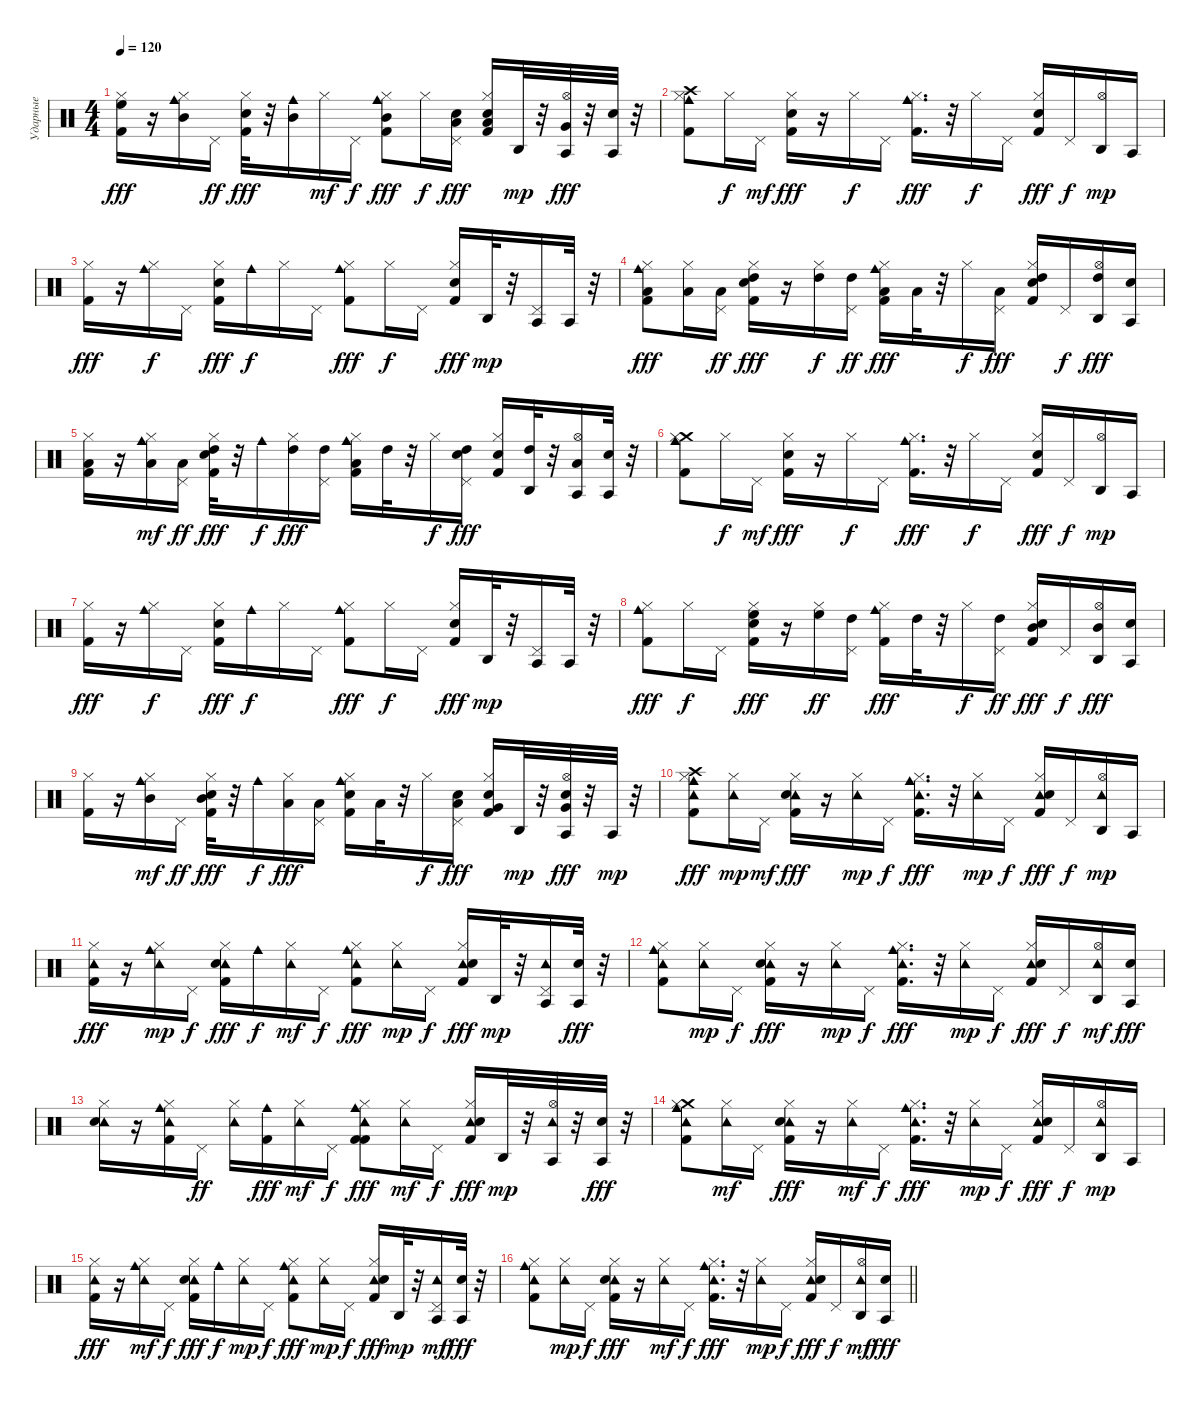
\track ("Ударные" "Ударные") {instrument percussion}
\staff {score}
\articulation defaults
\ts (4 4)
\tempo 120
\clef neutral
\ks c
("High Floor Tom (hit)" "Kick (hit) 2" "Hi-Hat (closed)").16{dy fff volume 16} r.16 ("Cowbell medium (hit)" "Hi-Hat (closed)" "Mid Tom (hit)").16 "Pedal Hi-Hat (hit)".16{dy ff} ("Electric Snare (hit)" "Kick (hit) 2" "Hi-Hat (closed)").32{dy fff} r.32 ("Cowbell medium (hit)" "Mid Tom (hit)").16 "Hi-Hat (closed)".16{dy mf} "Pedal Hi-Hat (hit)".16{dy f} ("Cowbell medium (hit)" "Mid Tom (hit)" "Hi-Hat (closed)" "Kick (hit) 2").8{dy fff} "Hi-Hat (closed)".16{dy f} ("Low Tom (hit)" "Pedal Hi-Hat (hit)" "Electric Snare (hit)").16{dy fff} ("Low Tom (hit)" "Hi-Hat (closed)" "Kick (hit) 2" "Electric Snare (hit)").16 "Agogo high (hit)".32{dy mp} r.32 ("Agogo tow (hit)" "Hi-Hat (open)" "Very Low Tom (hit)").32{dy fff} r.32 ("Agogo tow (hit)" "Electric Snare (hit)").32 r.32 |
("Cowbell medium (hit)" "Crash high (hit)" "Hi-Hat (closed)" "Kick (hit) 2").8 "Hi-Hat (closed)".16{dy f} "Pedal Hi-Hat (hit)".16{dy mf} ("Electric Snare (hit)" "Kick (hit) 2" "Hi-Hat (closed)").16{dy fff} r.16 "Hi-Hat (closed)".16{dy f} "Pedal Hi-Hat (hit)".16 ("Cowbell medium (hit)" "Kick (hit) 2" "Hi-Hat (closed)").16{d dy fff} r.32 "Hi-Hat (closed)".16{dy f} "Pedal Hi-Hat (hit)".16 ("Kick (hit) 2" "Electric Snare (hit)" "Hi-Hat (closed)").16{dy fff} "Pedal Hi-Hat (hit)".16{dy f} ("Agogo high (hit)" "Hi-Hat (open)").16{dy mp} "Agogo tow (hit)".16 |
("Kick (hit) 2" "Hi-Hat (closed)").16{dy fff} r.16 ("Cowbell medium (hit)" "Hi-Hat (closed)").16{dy f} "Pedal Hi-Hat (hit)".16 ("Hi-Hat (closed)" "Kick (hit) 2" "Electric Snare (hit)").16{dy fff} "Cowbell medium (hit)".16{dy f} "Hi-Hat (closed)".16 "Pedal Hi-Hat (hit)".16 ("Cowbell medium (hit)" "Kick (hit) 2" "Hi-Hat (closed)").8{dy fff} "Hi-Hat (closed)".16{dy f} "Pedal Hi-Hat (hit)".16 ("Electric Snare (hit)" "Kick (hit) 2" "Hi-Hat (closed)").16{dy fff} "Agogo high (hit)".32{dy mp} r.32 ("Agogo tow (hit)" "Pedal Hi-Hat (hit)").16 "Agogo tow (hit)".32 r.32 |
("Cowbell medium (hit)" "Kick (hit) 2" "Hi-Hat (closed)" "Low Tom (hit)").8{dy fff volume 16} ("Hi-Hat (closed)" "Low Tom (hit)").16 ("Low Tom (hit)" "Pedal Hi-Hat (hit)").16{dy ff} ("Electric Snare (hit)" "Kick (hit) 2" "Hi-Hat (closed)" "High Tom (hit)").16{dy fff} r.16 ("High Tom (hit)" "Hi-Hat (closed)").16{dy f} ("High Tom (hit)" "Pedal Hi-Hat (hit)").16{dy ff} ("Cowbell medium (hit)" "Low Tom (hit)" "Hi-Hat (closed)" "Kick (hit) 2").16{dy fff} "Low Tom (hit)".32 r.32 "Hi-Hat (closed)".16{dy f} ("Low Tom (hit)" "Pedal Hi-Hat (hit)").16{dy fff} ("High Tom (hit)" "Kick (hit) 2" "Electric Snare (hit)" "Hi-Hat (closed)").16 "Pedal Hi-Hat (hit)".16{dy f} ("Agogo high (hit)" "High Tom (hit)" "Hi-Hat (open)").16{dy fff} ("Agogo tow (hit)" "Electric Snare (hit)").16 |
("Low Tom (hit)" "Kick (hit) 2" "Hi-Hat (closed)").16{volume 16} r.16 ("Cowbell medium (hit)" "Low Tom (hit)" "Hi-Hat (closed)").16{dy mf} ("Low Tom (hit)" "Pedal Hi-Hat (hit)").16{dy ff} ("Electric Snare (hit)" "Kick (hit) 2" "Hi-Hat (closed)" "High Tom (hit)").32{dy fff} r.32 "Cowbell medium (hit)".16{dy f} ("Hi-Hat (closed)" "High Tom (hit)").16{dy fff} ("High Tom (hit)" "Pedal Hi-Hat (hit)").16 ("Cowbell medium (hit)" "Low Tom (hit)" "Hi-Hat (closed)" "Kick (hit) 2").16 "High Tom (hit)".32 r.32 "Hi-Hat (closed)".16{dy f} ("Pedal Hi-Hat (hit)" "Electric Snare (hit)" "High Tom (hit)").16{dy fff} ("Hi-Hat (closed)" "Kick (hit) 2" "Electric Snare (hit)").16 ("Agogo high (hit)" "High Tom (hit)").32 r.32 ("Agogo tow (hit)" "Low Tom (hit)" "Hi-Hat (open)").16 ("Agogo tow (hit)" "Electric Snare (hit)").32 r.32 |
("Cowbell medium (hit)" "Crash medium (hit)" "Hi-Hat (closed)" "Kick (hit) 2").8 "Hi-Hat (closed)".16{dy f} "Pedal Hi-Hat (hit)".16{dy mf} ("Electric Snare (hit)" "Kick (hit) 2" "Hi-Hat (closed)").16{dy fff} r.16 "Hi-Hat (closed)".16{dy f} "Pedal Hi-Hat (hit)".16 ("Cowbell medium (hit)" "Kick (hit) 2" "Hi-Hat (closed)").16{d dy fff} r.32 "Hi-Hat (closed)".16{dy f} "Pedal Hi-Hat (hit)".16 ("Kick (hit) 2" "Electric Snare (hit)" "Hi-Hat (closed)").16{dy fff} "Pedal Hi-Hat (hit)".16{dy f} ("Agogo high (hit)" "Hi-Hat (open)").16{dy mp} "Agogo tow (hit)".16 |
("Kick (hit) 2" "Hi-Hat (closed)").16{dy fff} r.16 ("Cowbell medium (hit)" "Hi-Hat (closed)").16{dy f} "Pedal Hi-Hat (hit)".16 ("Hi-Hat (closed)" "Kick (hit) 2" "Electric Snare (hit)").16{dy fff} "Cowbell medium (hit)".16{dy f} "Hi-Hat (closed)".16 "Pedal Hi-Hat (hit)".16 ("Cowbell medium (hit)" "Kick (hit) 2" "Hi-Hat (closed)").8{dy fff} "Hi-Hat (closed)".16{dy f} "Pedal Hi-Hat (hit)".16 ("Electric Snare (hit)" "Kick (hit) 2" "Hi-Hat (closed)").16{dy fff} "Agogo high (hit)".32{dy mp} r.32 ("Agogo tow (hit)" "Pedal Hi-Hat (hit)").16 "Agogo tow (hit)".32 r.32 |
("Cowbell medium (hit)" "Kick (hit) 2" "Hi-Hat (closed)").8{dy fff} "Hi-Hat (closed)".16{dy f} "Pedal Hi-Hat (hit)".16 ("Electric Snare (hit)" "Kick (hit) 2" "Hi-Hat (closed)" "High Floor Tom (hit)").16{dy fff} r.16 ("Hi-Hat (closed)" "High Floor Tom (hit)").16{dy ff} ("Pedal Hi-Hat (hit)" "High Tom (hit)").16 ("Cowbell medium (hit)" "Hi-Hat (closed)" "Kick (hit) 2").16{dy fff} "High Tom (hit)".32 r.32 "Hi-Hat (closed)".16{dy f} ("High Tom (hit)" "Pedal Hi-Hat (hit)").16{dy ff} ("Mid Tom (hit)" "Kick (hit) 2" "Electric Snare (hit)" "Hi-Hat (closed)").16{dy fff} "Pedal Hi-Hat (hit)".16{dy f} ("Agogo high (hit)" "Mid Tom (hit)" "Hi-Hat (open)").16{dy fff} ("Agogo tow (hit)" "Electric Snare (hit)").16 |
("Kick (hit) 2" "Hi-Hat (closed)").16 r.16 ("Cowbell medium (hit)" "Mid Tom (hit)" "Hi-Hat (closed)").16{dy mf} "Pedal Hi-Hat (hit)".16{dy ff} ("Electric Snare (hit)" "Kick (hit) 2" "Hi-Hat (closed)" "Mid Tom (hit)").32{dy fff} r.32 "Cowbell medium (hit)".16{dy f} ("Hi-Hat (closed)" "Low Tom (hit)").16{dy fff} ("Pedal Hi-Hat (hit)" "Low Tom (hit)").16 ("Cowbell medium (hit)" "Electric Snare (hit)" "Hi-Hat (closed)" "Kick (hit) 2").16 "Low Tom (hit)".32 r.32 "Hi-Hat (closed)".16{dy f} ("Low Tom (hit)" "Pedal Hi-Hat (hit)" "Electric Snare (hit)").16{dy fff} ("Very Low Tom (hit)" "Hi-Hat (closed)" "Kick (hit) 2" "Electric Snare (hit)").16 "Agogo high (hit)".32{dy mp} r.32 ("Agogo tow (hit)" "Very Low Tom (hit)" "Electric Snare (hit)" "Hi-Hat (open)").32{dy fff} r.32 "Agogo tow (hit)".32{dy mp} r.32 |
("Tambourine (hit)" "Cowbell medium (hit)" "Crash high (hit)" "Hi-Hat (closed)" "Kick (hit) 2").8{dy fff} ("Tambourine (hit)" "Hi-Hat (closed)").16{dy mp} "Pedal Hi-Hat (hit)".16{dy mf} ("Tambourine (hit)" "Electric Snare (hit)" "Kick (hit) 2" "Hi-Hat (closed)").16{dy fff} r.16 ("Tambourine (hit)" "Hi-Hat (closed)").16{dy mp} "Pedal Hi-Hat (hit)".16{dy f} ("Tambourine (hit)" "Cowbell medium (hit)" "Kick (hit) 2" "Hi-Hat (closed)").16{d dy fff} r.32 ("Tambourine (hit)" "Hi-Hat (closed)").16{dy mp} "Pedal Hi-Hat (hit)".16{dy f} ("Tambourine (hit)" "Kick (hit) 2" "Electric Snare (hit)" "Hi-Hat (closed)").16{dy fff} "Pedal Hi-Hat (hit)".16{dy f} ("Agogo high (hit)" "Tambourine (hit)" "Hi-Hat (open)").16{dy mp} "Agogo tow (hit)".16 |
("Tambourine (hit)" "Kick (hit) 2" "Hi-Hat (closed)").16{dy fff} r.16 ("Cowbell medium (hit)" "Tambourine (hit)" "Hi-Hat (closed)").16{dy mp} "Pedal Hi-Hat (hit)".16{dy f} ("Tambourine (hit)" "Hi-Hat (closed)" "Kick (hit) 2" "Electric Snare (hit)").16{dy fff} "Cowbell medium (hit)".16{dy f} ("Tambourine (hit)" "Hi-Hat (closed)").16{dy mf} "Pedal Hi-Hat (hit)".16{dy f} ("Cowbell medium (hit)" "Tambourine (hit)" "Kick (hit) 2" "Hi-Hat (closed)").8{dy fff} ("Tambourine (hit)" "Hi-Hat (closed)").16{dy mp} "Pedal Hi-Hat (hit)".16{dy f} ("Tambourine (hit)" "Electric Snare (hit)" "Kick (hit) 2" "Hi-Hat (closed)").16{dy fff} "Agogo high (hit)".32{dy mp} r.32 ("Agogo tow (hit)" "Tambourine (hit)" "Pedal Hi-Hat (hit)").16 ("Agogo tow (hit)" "Electric Snare (hit)").32{dy fff} r.32 |
("Cowbell medium (hit)" "Tambourine (hit)" "Kick (hit) 2" "Hi-Hat (closed)").8 ("Tambourine (hit)" "Hi-Hat (closed)").16{dy mp} "Pedal Hi-Hat (hit)".16{dy f} ("Tambourine (hit)" "Electric Snare (hit)" "Kick (hit) 2" "Hi-Hat (closed)").16{dy fff} r.16 ("Tambourine (hit)" "Hi-Hat (closed)").16{dy mp} "Pedal Hi-Hat (hit)".16{dy f} ("Cowbell medium (hit)" "Tambourine (hit)" "Hi-Hat (closed)" "Kick (hit) 2").16{d dy fff} r.32 ("Tambourine (hit)" "Hi-Hat (closed)").16{dy mp} "Pedal Hi-Hat (hit)".16{dy f} ("Tambourine (hit)" "Kick (hit) 2" "Electric Snare (hit)" "Hi-Hat (closed)").16{dy fff} "Pedal Hi-Hat (hit)".16{dy f} ("Agogo high (hit)" "Tambourine (hit)" "Hi-Hat (open)").16{dy mf} ("Agogo tow (hit)" "Electric Snare (hit)").16{dy fff} |
("Tambourine (hit)" "Electric Snare (hit)" "Hi-Hat (closed)").16 r.16 ("Tambourine (hit)" "Cowbell medium (hit)" "Hi-Hat (closed)" "Kick (hit) 2").16 "Pedal Hi-Hat (hit)".16{dy ff} ("Tambourine (hit)" "Hi-Hat (closed)").16 ("Cowbell medium (hit)" "Kick (hit) 2").16{dy fff} ("Tambourine (hit)" "Hi-Hat (closed)").16{dy mf} "Pedal Hi-Hat (hit)".16{dy f} ("Tambourine (hit)" "Cowbell medium (hit)" "Kick (hit) 2" "Hi-Hat (closed)" "Kick (hit) 2").8{dy fff} ("Tambourine (hit)" "Hi-Hat (closed)").16{dy mf} "Pedal Hi-Hat (hit)".16{dy f} ("Tambourine (hit)" "Hi-Hat (closed)" "Kick (hit) 2" "Electric Snare (hit)").16{dy fff} "Agogo high (hit)".32{dy mp} r.32 ("Agogo tow (hit)" "Tambourine (hit)" "Hi-Hat (open)").32 r.32 ("Agogo tow (hit)" "Electric Snare (hit)").32{dy fff} r.32 |
("Tambourine (hit)" "Cowbell medium (hit)" "Crash medium (hit)" "Hi-Hat (closed)" "Kick (hit) 2").8 ("Tambourine (hit)" "Hi-Hat (closed)").16{dy mf} "Pedal Hi-Hat (hit)".16 ("Tambourine (hit)" "Electric Snare (hit)" "Kick (hit) 2" "Hi-Hat (closed)").16{dy fff} r.16 ("Tambourine (hit)" "Hi-Hat (closed)").16{dy mf} "Pedal Hi-Hat (hit)".16{dy f} ("Tambourine (hit)" "Cowbell medium (hit)" "Kick (hit) 2" "Hi-Hat (closed)").16{d dy fff} r.32 ("Tambourine (hit)" "Hi-Hat (closed)").16{dy mp} "Pedal Hi-Hat (hit)".16{dy f} ("Tambourine (hit)" "Kick (hit) 2" "Electric Snare (hit)" "Hi-Hat (closed)").16{dy fff} "Pedal Hi-Hat (hit)".16{dy f} ("Agogo high (hit)" "Tambourine (hit)" "Hi-Hat (open)").16{dy mp} "Agogo tow (hit)".16 |
("Tambourine (hit)" "Kick (hit) 2" "Hi-Hat (closed)").16{dy fff} r.16 ("Cowbell medium (hit)" "Tambourine (hit)" "Hi-Hat (closed)").16{dy mf} "Pedal Hi-Hat (hit)".16{dy f} ("Tambourine (hit)" "Hi-Hat (closed)" "Kick (hit) 2" "Electric Snare (hit)").16{dy fff} "Cowbell medium (hit)".16{dy f} ("Tambourine (hit)" "Hi-Hat (closed)").16{dy mp} "Pedal Hi-Hat (hit)".16{dy f} ("Cowbell medium (hit)" "Tambourine (hit)" "Kick (hit) 2" "Hi-Hat (closed)").8{dy fff} ("Tambourine (hit)" "Hi-Hat (closed)").16{dy mp} "Pedal Hi-Hat (hit)".16{dy f} ("Tambourine (hit)" "Electric Snare (hit)" "Kick (hit) 2" "Hi-Hat (closed)").16{dy fff} "Agogo high (hit)".32{dy mp} r.32 ("Agogo tow (hit)" "Tambourine (hit)" "Pedal Hi-Hat (hit)").16{dy mf} ("Agogo tow (hit)" "Electric Snare (hit)").32{dy fff} r.32 |
\barLineRight lightlight
("Tambourine (hit)" "Cowbell medium (hit)" "Kick (hit) 2" "Hi-Hat (closed)").8 ("Tambourine (hit)" "Hi-Hat (closed)").16{dy mp} "Pedal Hi-Hat (hit)".16{dy f} ("Tambourine (hit)" "Electric Snare (hit)" "Kick (hit) 2" "Hi-Hat (closed)").16{dy fff} r.16 ("Tambourine (hit)" "Hi-Hat (closed)").16{dy mf} "Pedal Hi-Hat (hit)".16{dy f} ("Tambourine (hit)" "Cowbell medium (hit)" "Hi-Hat (closed)" "Kick (hit) 2").16{d dy fff} r.32 ("Tambourine (hit)" "Hi-Hat (closed)").16{dy mp} "Pedal Hi-Hat (hit)".16{dy f} ("Tambourine (hit)" "Kick (hit) 2" "Electric Snare (hit)" "Hi-Hat (closed)").16{dy fff} "Pedal Hi-Hat (hit)".16{dy f} ("Agogo high (hit)" "Tambourine (hit)" "Hi-Hat (open)").16{dy mf} ("Agogo tow (hit)" "Electric Snare (hit)").16{dy fff}
